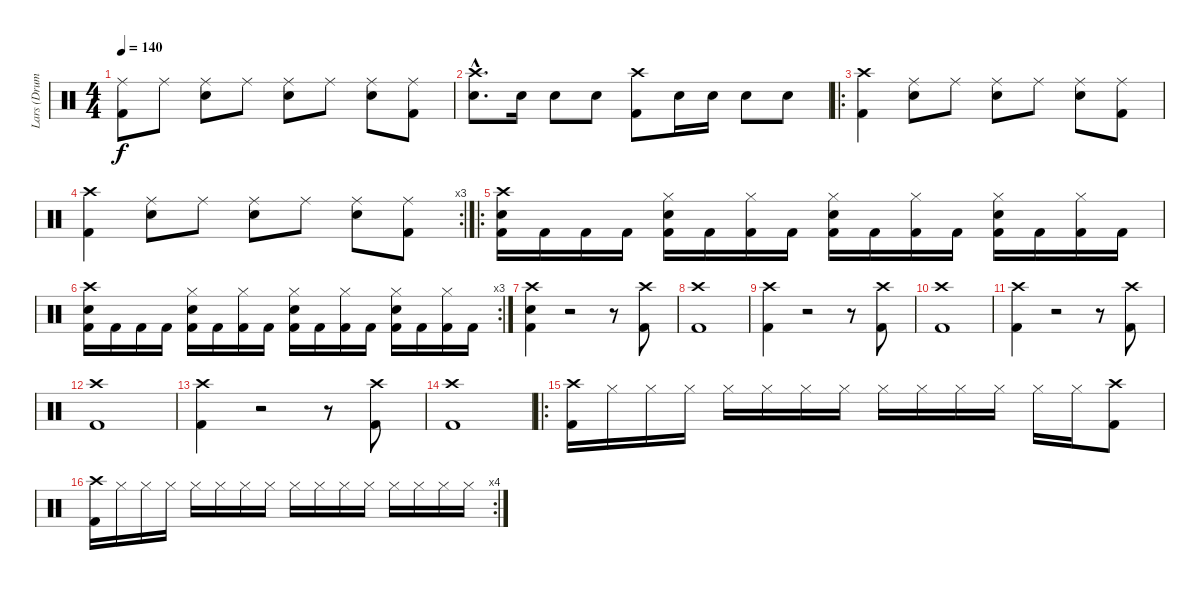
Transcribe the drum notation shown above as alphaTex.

\track ("Lars (Drums)" "Lars (Drum") {instrument percussion}
\staff {score}
\articulation defaults
\ts (4 4)
\tempo 140
\clef neutral
\ks c
("Ride (middle)" "Kick (hit) 2").8{dy f} "Ride (middle)".8 ("Ride (middle)" "Snare (hit) 2").8 "Ride (middle)".8 ("Ride (middle)" "Snare (hit) 2").8 "Ride (middle)".8 ("Ride (middle)" "Snare (hit) 2").8 ("Ride (middle)" "Kick (hit) 2").8 |
("Crash high (hit)"{hac} "Snare (hit) 2"{hac}).8{d} "Snare (hit) 2".16 "Snare (hit) 2".8 "Snare (hit) 2".8 ("Crash high (hit)" "Kick (hit) 2").8 "Snare (hit) 2".16 "Snare (hit) 2".16 "Snare (hit) 2".8 "Snare (hit) 2".8 |
\ro
("Crash high (hit)" "Kick (hit) 2").4 ("Ride (middle)" "Snare (hit) 2").8 "Ride (middle)".8 ("Ride (middle)" "Snare (hit) 2").8 "Ride (middle)".8 ("Ride (middle)" "Snare (hit) 2").8 ("Ride (middle)" "Kick (hit) 2").8 |
\rc 3
("Crash high (hit)" "Kick (hit) 2").4 ("Ride (middle)" "Snare (hit) 2").8 "Ride (middle)".8 ("Ride (middle)" "Snare (hit) 2").8 "Ride (middle)".8 ("Ride (middle)" "Snare (hit) 2").8 ("Ride (middle)" "Kick (hit) 2").8 |
\ro
("Crash high (hit)" "Snare (hit) 2" "Kick (hit) 2").16 "Kick (hit) 2".16 "Kick (hit) 2".16 "Kick (hit) 2".16 ("Hi-Hat (closed)" "Snare (hit) 2" "Kick (hit) 2").16 "Kick (hit) 2".16 ("Hi-Hat (closed)" "Kick (hit) 2").16 "Kick (hit) 2".16 ("Hi-Hat (closed)" "Snare (hit) 2" "Kick (hit) 2").16 "Kick (hit) 2".16 ("Hi-Hat (closed)" "Kick (hit) 2").16 "Kick (hit) 2".16 ("Hi-Hat (closed)" "Snare (hit) 2" "Kick (hit) 2").16 "Kick (hit) 2".16 ("Hi-Hat (closed)" "Kick (hit) 2").16 "Kick (hit) 2".16 |
\rc 3
("Crash high (hit)" "Snare (hit) 2" "Kick (hit) 2").16 "Kick (hit) 2".16 "Kick (hit) 2".16 "Kick (hit) 2".16 ("Hi-Hat (closed)" "Snare (hit) 2" "Kick (hit) 2").16 "Kick (hit) 2".16 ("Hi-Hat (closed)" "Kick (hit) 2").16 "Kick (hit) 2".16 ("Hi-Hat (closed)" "Snare (hit) 2" "Kick (hit) 2").16 "Kick (hit) 2".16 ("Hi-Hat (closed)" "Kick (hit) 2").16 "Kick (hit) 2".16 ("Hi-Hat (closed)" "Snare (hit) 2" "Kick (hit) 2").16 "Kick (hit) 2".16 ("Hi-Hat (closed)" "Kick (hit) 2").16 "Kick (hit) 2".16 |
("Crash high (hit)" "Snare (hit) 2" "Kick (hit) 2").4 r.2 r.8 ("Crash high (hit)" "Kick (hit) 2").8 |
("Crash high (hit)" "Kick (hit) 2").1 |
("Crash high (hit)" "Kick (hit) 2").4 r.2 r.8 ("Crash high (hit)" "Kick (hit) 2").8 |
("Crash high (hit)" "Kick (hit) 2").1 |
("Crash high (hit)" "Kick (hit) 2").4 r.2 r.8 ("Crash high (hit)" "Kick (hit) 2").8 |
("Crash high (hit)" "Kick (hit) 2").1 |
("Crash high (hit)" "Kick (hit) 2").4 r.2 r.8 ("Crash high (hit)" "Kick (hit) 2").8 |
("Crash high (hit)" "Kick (hit) 2").1 |
\ro
("Crash high (hit)" "Kick (hit) 2").16 "Hi-Hat (closed)".16 "Hi-Hat (closed)".16 "Hi-Hat (closed)".16 "Hi-Hat (closed)".16 "Hi-Hat (closed)".16 "Hi-Hat (closed)".16 "Hi-Hat (closed)".16 "Hi-Hat (closed)".16 "Hi-Hat (closed)".16 "Hi-Hat (closed)".16 "Hi-Hat (closed)".16 "Hi-Hat (closed)".16 "Hi-Hat (closed)".16 ("Crash high (hit)" "Kick (hit) 2").8 |
\rc 4
("Crash high (hit)" "Kick (hit) 2").16 "Hi-Hat (closed)".16 "Hi-Hat (closed)".16 "Hi-Hat (closed)".16 "Hi-Hat (closed)".16 "Hi-Hat (closed)".16 "Hi-Hat (closed)".16 "Hi-Hat (closed)".16 "Hi-Hat (closed)".16 "Hi-Hat (closed)".16 "Hi-Hat (closed)".16 "Hi-Hat (closed)".16 "Hi-Hat (closed)".16 "Hi-Hat (closed)".16 "Hi-Hat (closed)".16 "Hi-Hat (closed)".16
